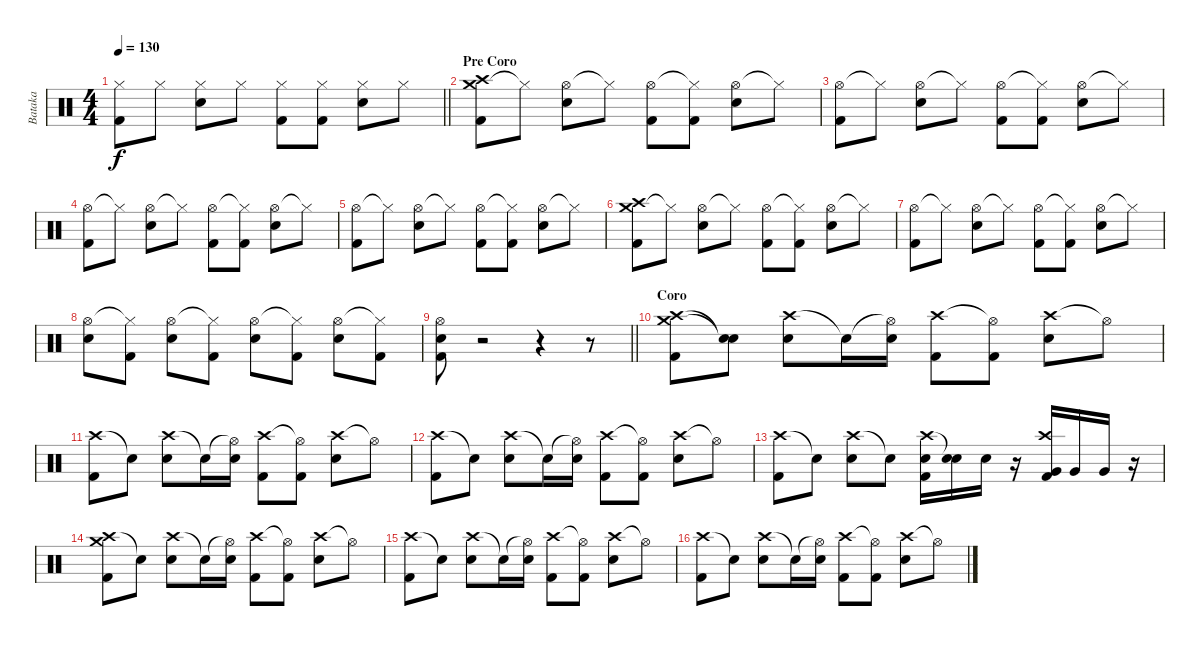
\track ("Bataka" "Bataka") {instrument percussion}
\staff {score}
\articulation defaults
\ts (4 4)
\tempo 130
\clef neutral
\barLineRight lightlight
\ks c
("Hi-Hat (closed)" "Kick (hit) 2").8{dy f} "Hi-Hat (closed)".8 ("Hi-Hat (closed)" "Electric Snare (hit)").8 "Hi-Hat (closed)".8 ("Hi-Hat (closed)" "Kick (hit) 2").8 ("Hi-Hat (closed)" "Kick (hit) 2").8 ("Hi-Hat (closed)" "Electric Snare (hit)").8 "Hi-Hat (closed)".8 |
\section ("" "Pre Coro")
("Crash medium (hit)" "Crash high (hit)" "Kick (hit) 2").8 "Hi-Hat (closed)"{t}.8 ("Hi-Hat (open)" "Electric Snare (hit)").8 "Hi-Hat (closed)"{t}.8 ("Hi-Hat (open)" "Kick (hit) 2").8 ("Hi-Hat (closed)"{t} "Kick (hit) 2").8 ("Hi-Hat (open)" "Electric Snare (hit)").8 "Hi-Hat (closed)"{t}.8 |
("Hi-Hat (open)" "Kick (hit) 2").8 "Hi-Hat (closed)"{t}.8 ("Hi-Hat (open)" "Electric Snare (hit)").8 "Hi-Hat (closed)"{t}.8 ("Hi-Hat (open)" "Kick (hit) 2").8 ("Hi-Hat (closed)"{t} "Kick (hit) 2").8 ("Hi-Hat (open)" "Electric Snare (hit)").8 "Hi-Hat (closed)"{t}.8 |
("Hi-Hat (open)" "Kick (hit) 2").8 "Hi-Hat (closed)"{t}.8 ("Hi-Hat (open)" "Electric Snare (hit)").8 "Hi-Hat (closed)"{t}.8 ("Hi-Hat (open)" "Kick (hit) 2").8 ("Hi-Hat (closed)"{t} "Kick (hit) 2").8 ("Hi-Hat (open)" "Electric Snare (hit)").8 "Hi-Hat (closed)"{t}.8 |
("Hi-Hat (open)" "Kick (hit) 2").8 "Hi-Hat (closed)"{t}.8 ("Hi-Hat (open)" "Electric Snare (hit)").8 "Hi-Hat (closed)"{t}.8 ("Hi-Hat (open)" "Kick (hit) 2").8 ("Hi-Hat (closed)"{t} "Kick (hit) 2").8 ("Hi-Hat (open)" "Electric Snare (hit)").8 "Hi-Hat (closed)"{t}.8 |
("Crash medium (hit)" "Crash high (hit)" "Kick (hit) 2").8 "Hi-Hat (closed)"{t}.8 ("Hi-Hat (open)" "Electric Snare (hit)").8 "Hi-Hat (closed)"{t}.8 ("Hi-Hat (open)" "Kick (hit) 2").8 ("Hi-Hat (closed)"{t} "Kick (hit) 2").8 ("Hi-Hat (open)" "Electric Snare (hit)").8 "Hi-Hat (closed)"{t}.8 |
("Hi-Hat (open)" "Kick (hit) 2").8 "Hi-Hat (closed)"{t}.8 ("Hi-Hat (open)" "Electric Snare (hit)").8 "Hi-Hat (closed)"{t}.8 ("Hi-Hat (open)" "Kick (hit) 2").8 ("Hi-Hat (closed)"{t} "Kick (hit) 2").8 ("Hi-Hat (open)" "Electric Snare (hit)").8 "Hi-Hat (closed)"{t}.8 |
("Hi-Hat (open)" "Electric Snare (hit)").8 ("Hi-Hat (closed)"{t} "Kick (hit) 2").8 ("Hi-Hat (open)" "Electric Snare (hit)").8 ("Hi-Hat (closed)"{t} "Kick (hit) 2").8 ("Hi-Hat (open)" "Electric Snare (hit)").8 ("Hi-Hat (closed)"{t} "Kick (hit) 2").8 ("Hi-Hat (open)" "Electric Snare (hit)").8 ("Hi-Hat (closed)"{t} "Kick (hit) 2").8 |
\barLineRight lightlight
("Hi-Hat (open)" "Electric Snare (hit)" "Kick (hit) 2").8 r.2 r.4 r.8 |
\section ("" "Coro")
("Crash medium (hit)" "Crash high (hit)" "Kick (hit) 2").8 ("Snare (hit)"{t} "Snare (hit)"{t}).8 ("Crash high (hit)" "Electric Snare (hit)").8 "Snare (hit)"{t}.16 ("Hi-Hat (open)"{t} "Electric Snare (hit)").16 ("Crash high (hit)" "Kick (hit) 2").8 ("Hi-Hat (open)"{t} "Kick (hit) 2").8 ("Crash high (hit)" "Electric Snare (hit)").8 "Hi-Hat (open)"{t}.8 |
("Crash high (hit)" "Kick (hit) 2").8 "Snare (hit)"{t}.8 ("Crash high (hit)" "Electric Snare (hit)").8 "Snare (hit)"{t}.16 ("Hi-Hat (open)"{t} "Electric Snare (hit)").16 ("Crash high (hit)" "Kick (hit) 2").8 ("Hi-Hat (open)"{t} "Kick (hit) 2").8 ("Crash high (hit)" "Electric Snare (hit)").8 "Hi-Hat (open)"{t}.8 |
("Crash high (hit)" "Kick (hit) 2").8 "Snare (hit)"{t}.8 ("Crash high (hit)" "Electric Snare (hit)").8 "Snare (hit)"{t}.16 ("Hi-Hat (open)"{t} "Electric Snare (hit)").16 ("Crash high (hit)" "Kick (hit) 2").8 ("Hi-Hat (open)"{t} "Kick (hit) 2").8 ("Crash high (hit)" "Electric Snare (hit)").8 "Hi-Hat (open)"{t}.8 |
("Crash high (hit)" "Kick (hit) 2").8 "Snare (hit)"{t}.8 ("Crash high (hit)" "Electric Snare (hit)").8 "Snare (hit)"{t}.8 ("Crash high (hit)" "Electric Snare (hit)" "Kick (hit) 2").16 ("Snare (hit)"{t} "Electric Snare (hit)").16 "Electric Snare (hit)".16 r.16 ("Crash high (hit)" "Very Low Tom (hit)" "Kick (hit) 2").16 "Very Low Tom (hit)".16 "Very Low Tom (hit)".16 r.16 |
("Crash high (hit)" "Crash medium (hit)" "Kick (hit) 2").8 "Snare (hit)"{t}.8 ("Crash high (hit)" "Electric Snare (hit)").8 "Snare (hit)"{t}.16 ("Hi-Hat (open)"{t} "Electric Snare (hit)").16 ("Crash high (hit)" "Kick (hit) 2").8 ("Hi-Hat (open)"{t} "Kick (hit) 2").8 ("Crash high (hit)" "Electric Snare (hit)").8 "Hi-Hat (open)"{t}.8 |
("Crash high (hit)" "Kick (hit) 2").8 "Snare (hit)"{t}.8 ("Crash high (hit)" "Electric Snare (hit)").8 "Snare (hit)"{t}.16 ("Hi-Hat (open)"{t} "Electric Snare (hit)").16 ("Crash high (hit)" "Kick (hit) 2").8 ("Hi-Hat (open)"{t} "Kick (hit) 2").8 ("Crash high (hit)" "Electric Snare (hit)").8 "Hi-Hat (open)"{t}.8 |
("Crash high (hit)" "Kick (hit) 2").8 "Snare (hit)"{t}.8 ("Crash high (hit)" "Electric Snare (hit)").8 "Snare (hit)"{t}.16 ("Hi-Hat (open)"{t} "Electric Snare (hit)").16 ("Crash high (hit)" "Kick (hit) 2").8 ("Hi-Hat (open)"{t} "Kick (hit) 2").8 ("Crash high (hit)" "Electric Snare (hit)").8 "Hi-Hat (open)"{t}.8
